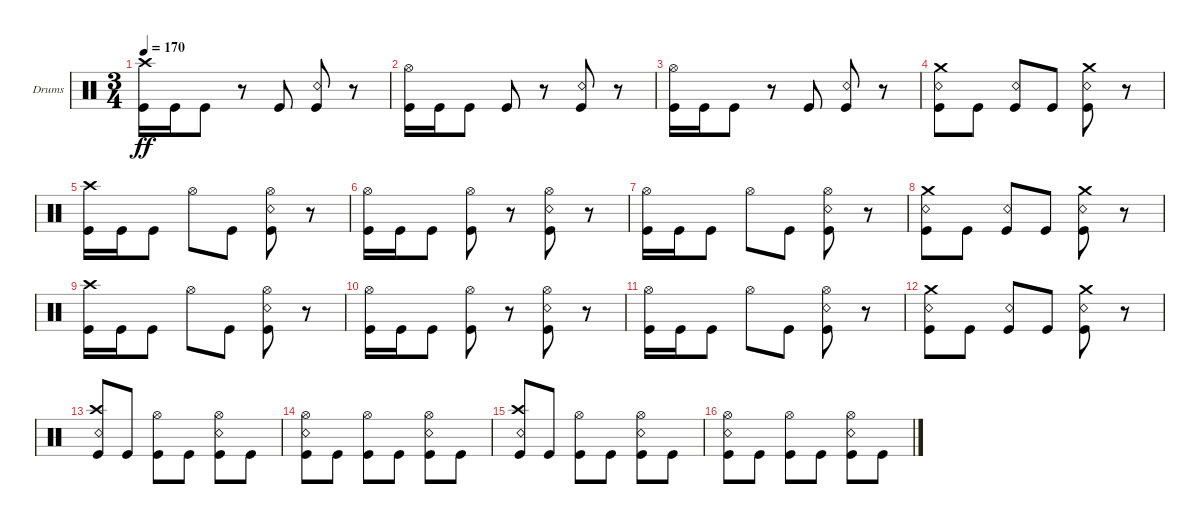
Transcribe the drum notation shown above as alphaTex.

\bracketExtendMode groupsimilarinstruments
\firstSystemTrackNameOrientation horizontal
\otherSystemsTrackNameOrientation horizontal
\track ("Kaleb - Drums" "Drums") {instrument percussion}
\staff {score}
\articulation defaults
\ts (3 4)
\tempo 170
\clef neutral
\ks c
("Kick (hit)" "Crash high (hit)").16{dy ff} "Kick (hit)".16 "Kick (hit)".8 r.8 "Kick (hit)".8 ("Kick (hit)" "Snare (rim shot)").8 r.8 |
("Kick (hit)" "Hi-Hat (open)").16 "Kick (hit)".16 "Kick (hit)".8 "Kick (hit)".8 r.8 ("Kick (hit)" "Snare (rim shot)").8 r.8 |
("Kick (hit)" "Hi-Hat (open)").16 "Kick (hit)".16 "Kick (hit)".8 r.8 "Kick (hit)".8 ("Kick (hit)" "Snare (rim shot)").8 r.8 |
("Kick (hit)" "Crash medium (hit)" "Snare (rim shot)").8 "Kick (hit)".8 ("Kick (hit)" "Snare (rim shot)").8 "Kick (hit)".8 ("Kick (hit)" "Crash medium (hit)" "Snare (rim shot)").8 r.8 |
("Kick (hit)" "Crash high (hit)").16 "Kick (hit)".16 "Kick (hit)".8 "Hi-Hat (open)".8 "Kick (hit)".8 ("Kick (hit)" "Snare (rim shot)" "Hi-Hat (open)").8 r.8 |
("Kick (hit)" "Hi-Hat (open)").16 "Kick (hit)".16 "Kick (hit)".8 ("Kick (hit)" "Hi-Hat (open)").8 r.8 ("Kick (hit)" "Snare (rim shot)" "Hi-Hat (open)").8 r.8 |
("Kick (hit)" "Hi-Hat (open)").16 "Kick (hit)".16 "Kick (hit)".8 "Hi-Hat (open)".8 "Kick (hit)".8 ("Kick (hit)" "Snare (rim shot)" "Hi-Hat (open)").8 r.8 |
("Kick (hit)" "Crash medium (hit)" "Snare (rim shot)").8 "Kick (hit)".8 ("Kick (hit)" "Snare (rim shot)").8 "Kick (hit)".8 ("Kick (hit)" "Crash medium (hit)" "Snare (rim shot)").8 r.8 |
("Kick (hit)" "Crash high (hit)").16 "Kick (hit)".16 "Kick (hit)".8 "Hi-Hat (open)".8 "Kick (hit)".8 ("Kick (hit)" "Snare (rim shot)" "Hi-Hat (open)").8 r.8 |
("Kick (hit)" "Hi-Hat (open)").16 "Kick (hit)".16 "Kick (hit)".8 ("Kick (hit)" "Hi-Hat (open)").8 r.8 ("Kick (hit)" "Snare (rim shot)" "Hi-Hat (open)").8 r.8 |
("Kick (hit)" "Hi-Hat (open)").16 "Kick (hit)".16 "Kick (hit)".8 "Hi-Hat (open)".8 "Kick (hit)".8 ("Kick (hit)" "Snare (rim shot)" "Hi-Hat (open)").8 r.8 |
("Kick (hit)" "Crash medium (hit)" "Snare (rim shot)").8 "Kick (hit)".8 ("Kick (hit)" "Snare (rim shot)").8 "Kick (hit)".8 ("Kick (hit)" "Crash medium (hit)" "Snare (rim shot)").8 r.8 |
("Kick (hit)" "Snare (rim shot)" "Crash high (hit)").8 "Kick (hit)".8 ("Kick (hit)" "Hi-Hat (open)").8 "Kick (hit)".8 ("Kick (hit)" "Snare (rim shot)" "Hi-Hat (open)").8 "Kick (hit)".8 |
("Kick (hit)" "Snare (rim shot)" "Hi-Hat (open)").8 "Kick (hit)".8 ("Kick (hit)" "Hi-Hat (open)").8 "Kick (hit)".8 ("Kick (hit)" "Snare (rim shot)" "Hi-Hat (open)").8 "Kick (hit)".8 |
("Kick (hit)" "Snare (rim shot)" "Crash high (hit)").8 "Kick (hit)".8 ("Kick (hit)" "Hi-Hat (open)").8 "Kick (hit)".8 ("Kick (hit)" "Snare (rim shot)" "Hi-Hat (open)").8 "Kick (hit)".8 |
("Kick (hit)" "Snare (rim shot)" "Hi-Hat (open)").8 "Kick (hit)".8 ("Kick (hit)" "Hi-Hat (open)").8 "Kick (hit)".8 ("Kick (hit)" "Snare (rim shot)" "Hi-Hat (open)").8 "Kick (hit)".8
